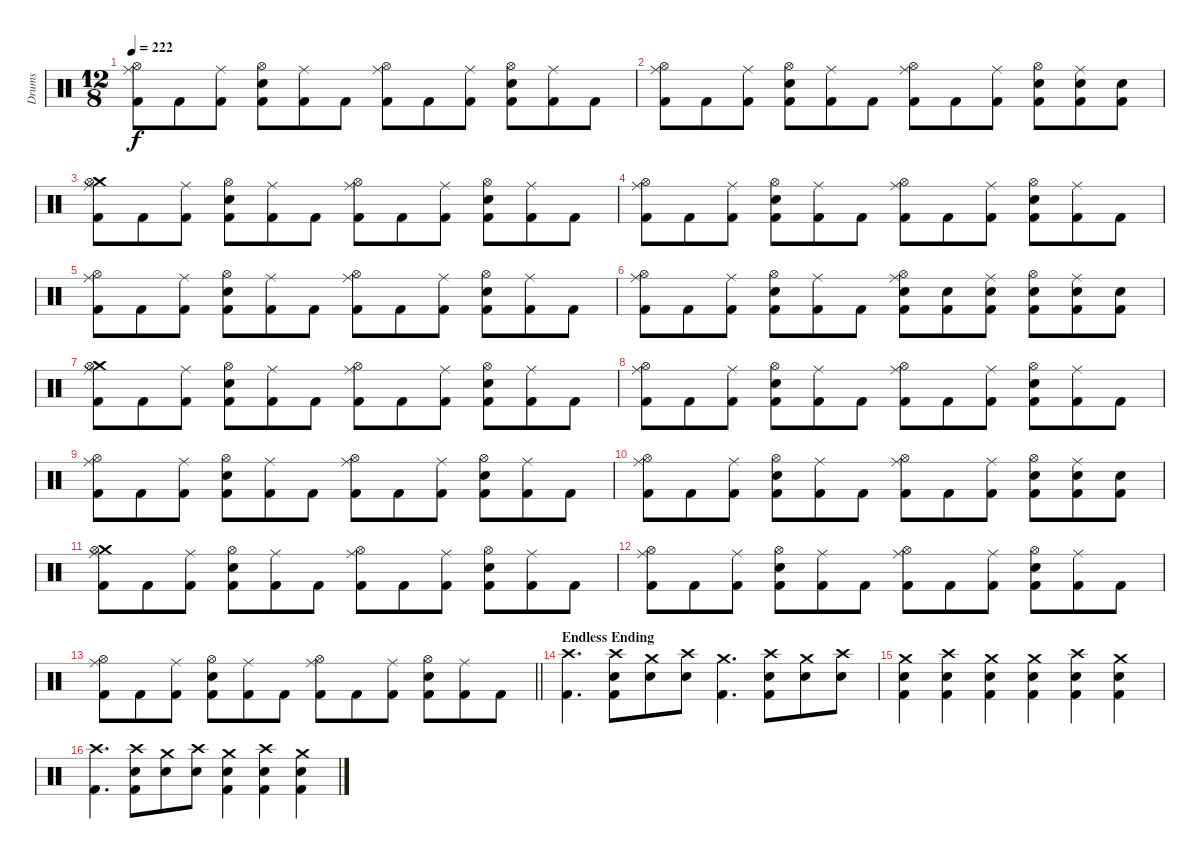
\track ("Drums" "Drums") {instrument percussion}
\staff {score}
\articulation defaults
\ts (12 8)
\tempo 222
\clef neutral
\ks c
("Hi-Hat (open)" "Ride (middle)" "Kick (hit) 2").8{dy f} "Kick (hit) 2".8 ("Ride (middle)" "Kick (hit) 2").8 ("Hi-Hat (open)" "Snare (hit) 2" "Kick (hit) 2").8 ("Ride (middle)" "Kick (hit) 2").8 "Kick (hit) 2".8 ("Hi-Hat (open)" "Ride (middle)" "Kick (hit) 2").8 "Kick (hit) 2".8 ("Ride (middle)" "Kick (hit) 2").8 ("Hi-Hat (open)" "Snare (hit) 2" "Kick (hit) 2").8 ("Ride (middle)" "Kick (hit) 2").8 "Kick (hit) 2".8 |
("Hi-Hat (open)" "Ride (middle)" "Kick (hit) 2").8 "Kick (hit) 2".8 ("Ride (middle)" "Kick (hit) 2").8 ("Hi-Hat (open)" "Snare (hit) 2" "Kick (hit) 2").8 ("Ride (middle)" "Kick (hit) 2").8 "Kick (hit) 2".8 ("Hi-Hat (open)" "Ride (middle)" "Kick (hit) 2").8 "Kick (hit) 2".8 ("Ride (middle)" "Kick (hit) 2").8 ("Hi-Hat (open)" "Snare (hit) 2" "Kick (hit) 2").8 ("Ride (middle)" "Snare (hit) 2" "Kick (hit) 2").8 ("Snare (hit) 2" "Kick (hit) 2").8 |
("Crash medium (hit)" "Hi-Hat (open)" "Ride (middle)" "Kick (hit) 2").8 "Kick (hit) 2".8 ("Ride (middle)" "Kick (hit) 2").8 ("Hi-Hat (open)" "Snare (hit) 2" "Kick (hit) 2").8 ("Ride (middle)" "Kick (hit) 2").8 "Kick (hit) 2".8 ("Hi-Hat (open)" "Ride (middle)" "Kick (hit) 2").8 "Kick (hit) 2".8 ("Ride (middle)" "Kick (hit) 2").8 ("Hi-Hat (open)" "Snare (hit) 2" "Kick (hit) 2").8 ("Ride (middle)" "Kick (hit) 2").8 "Kick (hit) 2".8 |
("Hi-Hat (open)" "Ride (middle)" "Kick (hit) 2").8 "Kick (hit) 2".8 ("Ride (middle)" "Kick (hit) 2").8 ("Hi-Hat (open)" "Snare (hit) 2" "Kick (hit) 2").8 ("Ride (middle)" "Kick (hit) 2").8 "Kick (hit) 2".8 ("Hi-Hat (open)" "Ride (middle)" "Kick (hit) 2").8 "Kick (hit) 2".8 ("Ride (middle)" "Kick (hit) 2").8 ("Hi-Hat (open)" "Snare (hit) 2" "Kick (hit) 2").8 ("Ride (middle)" "Kick (hit) 2").8 "Kick (hit) 2".8 |
("Hi-Hat (open)" "Ride (middle)" "Kick (hit) 2").8 "Kick (hit) 2".8 ("Ride (middle)" "Kick (hit) 2").8 ("Hi-Hat (open)" "Snare (hit) 2" "Kick (hit) 2").8 ("Ride (middle)" "Kick (hit) 2").8 "Kick (hit) 2".8 ("Hi-Hat (open)" "Ride (middle)" "Kick (hit) 2").8 "Kick (hit) 2".8 ("Ride (middle)" "Kick (hit) 2").8 ("Hi-Hat (open)" "Snare (hit) 2" "Kick (hit) 2").8 ("Ride (middle)" "Kick (hit) 2").8 "Kick (hit) 2".8 |
("Hi-Hat (open)" "Ride (middle)" "Kick (hit) 2").8 "Kick (hit) 2".8 ("Ride (middle)" "Kick (hit) 2").8 ("Hi-Hat (open)" "Snare (hit) 2" "Kick (hit) 2").8 ("Ride (middle)" "Kick (hit) 2").8 "Kick (hit) 2".8 ("Hi-Hat (open)" "Ride (middle)" "Snare (hit) 2" "Kick (hit) 2").8 ("Snare (hit) 2" "Kick (hit) 2").8 ("Ride (middle)" "Snare (hit) 2" "Kick (hit) 2").8 ("Hi-Hat (open)" "Snare (hit) 2" "Kick (hit) 2").8 ("Ride (middle)" "Snare (hit) 2" "Kick (hit) 2").8 ("Snare (hit) 2" "Kick (hit) 2").8 |
("Crash medium (hit)" "Hi-Hat (open)" "Ride (middle)" "Kick (hit) 2").8 "Kick (hit) 2".8 ("Ride (middle)" "Kick (hit) 2").8 ("Hi-Hat (open)" "Snare (hit) 2" "Kick (hit) 2").8 ("Ride (middle)" "Kick (hit) 2").8 "Kick (hit) 2".8 ("Hi-Hat (open)" "Ride (middle)" "Kick (hit) 2").8 "Kick (hit) 2".8 ("Ride (middle)" "Kick (hit) 2").8 ("Hi-Hat (open)" "Snare (hit) 2" "Kick (hit) 2").8 ("Ride (middle)" "Kick (hit) 2").8 "Kick (hit) 2".8 |
("Hi-Hat (open)" "Ride (middle)" "Kick (hit) 2").8 "Kick (hit) 2".8 ("Ride (middle)" "Kick (hit) 2").8 ("Hi-Hat (open)" "Snare (hit) 2" "Kick (hit) 2").8 ("Ride (middle)" "Kick (hit) 2").8 "Kick (hit) 2".8 ("Hi-Hat (open)" "Ride (middle)" "Kick (hit) 2").8 "Kick (hit) 2".8 ("Ride (middle)" "Kick (hit) 2").8 ("Hi-Hat (open)" "Snare (hit) 2" "Kick (hit) 2").8 ("Ride (middle)" "Kick (hit) 2").8 "Kick (hit) 2".8 |
("Hi-Hat (open)" "Ride (middle)" "Kick (hit) 2").8 "Kick (hit) 2".8 ("Ride (middle)" "Kick (hit) 2").8 ("Hi-Hat (open)" "Snare (hit) 2" "Kick (hit) 2").8 ("Ride (middle)" "Kick (hit) 2").8 "Kick (hit) 2".8 ("Hi-Hat (open)" "Ride (middle)" "Kick (hit) 2").8 "Kick (hit) 2".8 ("Ride (middle)" "Kick (hit) 2").8 ("Hi-Hat (open)" "Snare (hit) 2" "Kick (hit) 2").8 ("Ride (middle)" "Kick (hit) 2").8 "Kick (hit) 2".8 |
("Hi-Hat (open)" "Ride (middle)" "Kick (hit) 2").8 "Kick (hit) 2".8 ("Ride (middle)" "Kick (hit) 2").8 ("Hi-Hat (open)" "Snare (hit) 2" "Kick (hit) 2").8 ("Ride (middle)" "Kick (hit) 2").8 "Kick (hit) 2".8 ("Hi-Hat (open)" "Ride (middle)" "Kick (hit) 2").8 "Kick (hit) 2".8 ("Ride (middle)" "Kick (hit) 2").8 ("Hi-Hat (open)" "Snare (hit) 2" "Kick (hit) 2").8 ("Ride (middle)" "Snare (hit) 2" "Kick (hit) 2").8 ("Snare (hit) 2" "Kick (hit) 2").8 |
("Crash medium (hit)" "Hi-Hat (open)" "Ride (middle)" "Kick (hit) 2").8 "Kick (hit) 2".8 ("Ride (middle)" "Kick (hit) 2").8 ("Hi-Hat (open)" "Snare (hit) 2" "Kick (hit) 2").8 ("Ride (middle)" "Kick (hit) 2").8 "Kick (hit) 2".8 ("Hi-Hat (open)" "Ride (middle)" "Kick (hit) 2").8 "Kick (hit) 2".8 ("Ride (middle)" "Kick (hit) 2").8 ("Hi-Hat (open)" "Snare (hit) 2" "Kick (hit) 2").8 ("Ride (middle)" "Kick (hit) 2").8 "Kick (hit) 2".8 |
("Hi-Hat (open)" "Ride (middle)" "Kick (hit) 2").8 "Kick (hit) 2".8 ("Ride (middle)" "Kick (hit) 2").8 ("Hi-Hat (open)" "Snare (hit) 2" "Kick (hit) 2").8 ("Ride (middle)" "Kick (hit) 2").8 "Kick (hit) 2".8 ("Hi-Hat (open)" "Ride (middle)" "Kick (hit) 2").8 "Kick (hit) 2".8 ("Ride (middle)" "Kick (hit) 2").8 ("Hi-Hat (open)" "Snare (hit) 2" "Kick (hit) 2").8 ("Ride (middle)" "Kick (hit) 2").8 "Kick (hit) 2".8 |
\barLineRight lightlight
("Hi-Hat (open)" "Ride (middle)" "Kick (hit) 2").8 "Kick (hit) 2".8 ("Ride (middle)" "Kick (hit) 2").8 ("Hi-Hat (open)" "Snare (hit) 2" "Kick (hit) 2").8 ("Ride (middle)" "Kick (hit) 2").8 "Kick (hit) 2".8 ("Hi-Hat (open)" "Ride (middle)" "Kick (hit) 2").8 "Kick (hit) 2".8 ("Ride (middle)" "Kick (hit) 2").8 ("Hi-Hat (open)" "Snare (hit) 2" "Kick (hit) 2").8 ("Ride (middle)" "Kick (hit) 2").8 "Kick (hit) 2".8 |
\section ("" "Endless Ending")
("Crash high (hit)" "Kick (hit) 2").4{d} ("Crash high (hit)" "Snare (hit) 2" "Kick (hit) 2").8 ("Crash medium (hit)" "Snare (hit) 2").8 ("Crash high (hit)" "Snare (hit) 2").8 ("Crash medium (hit)" "Kick (hit) 2").4{d} ("Crash high (hit)" "Snare (hit) 2" "Kick (hit) 2").8 ("Crash medium (hit)" "Snare (hit) 2").8 ("Crash high (hit)" "Snare (hit) 2").8 |
("Crash medium (hit)" "Snare (hit) 2" "Kick (hit) 2").4 ("Crash high (hit)" "Snare (hit) 2" "Kick (hit) 2").4 ("Crash medium (hit)" "Snare (hit) 2" "Kick (hit) 2").4 ("Crash medium (hit)" "Snare (hit) 2" "Kick (hit) 2").4 ("Crash high (hit)" "Snare (hit) 2" "Kick (hit) 2").4 ("Crash medium (hit)" "Snare (hit) 2" "Kick (hit) 2").4 |
("Crash high (hit)" "Kick (hit) 2").4{d} ("Crash high (hit)" "Snare (hit) 2" "Kick (hit) 2").8 ("Crash medium (hit)" "Snare (hit) 2").8 ("Crash high (hit)" "Snare (hit) 2").8 ("Crash medium (hit)" "Snare (hit) 2" "Kick (hit) 2").4 ("Crash high (hit)" "Snare (hit) 2" "Kick (hit) 2").4 ("Crash medium (hit)" "Snare (hit) 2" "Kick (hit) 2").4
